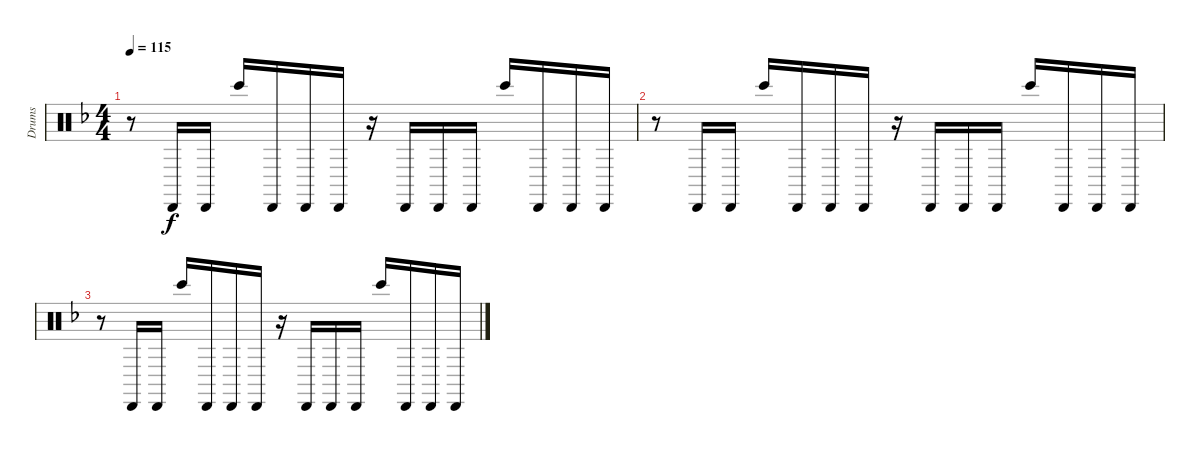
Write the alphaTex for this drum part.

\track ("Drums" "Drums") {instrument percussion}
\staff {score}
\articulation defaults
\ts (4 4)
\tempo 115
\clef neutral
\ks f
r.8{dy f} "Cabasa (hit)".16 "Cabasa (hit)".16 "Bongo High (hit)".16 "Cabasa (hit)".16 "Cabasa (hit)".16 "Cabasa (hit)".16 r.16 "Cabasa (hit)".16 "Cabasa (hit)".16 "Cabasa (hit)".16 "Bongo High (hit)".16 "Cabasa (hit)".16 "Cabasa (hit)".16 "Cabasa (hit)".16 |
r.8 "Cabasa (hit)".16 "Cabasa (hit)".16 "Bongo High (hit)".16 "Cabasa (hit)".16 "Cabasa (hit)".16 "Cabasa (hit)".16 r.16 "Cabasa (hit)".16 "Cabasa (hit)".16 "Cabasa (hit)".16 "Bongo High (hit)".16 "Cabasa (hit)".16 "Cabasa (hit)".16 "Cabasa (hit)".16 |
r.8 "Cabasa (hit)".16 "Cabasa (hit)".16 "Bongo High (hit)".16 "Cabasa (hit)".16 "Cabasa (hit)".16 "Cabasa (hit)".16 r.16 "Cabasa (hit)".16 "Cabasa (hit)".16 "Cabasa (hit)".16 "Bongo High (hit)".16 "Cabasa (hit)".16 "Cabasa (hit)".16 "Cabasa (hit)".16
